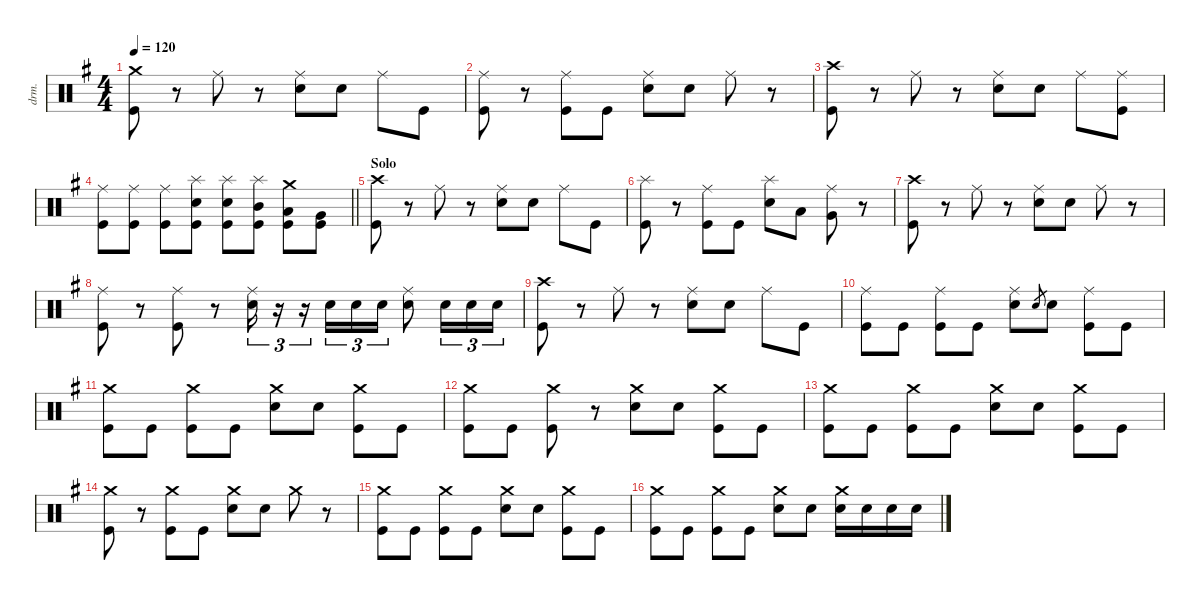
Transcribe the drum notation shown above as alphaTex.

\defaultSystemsLayout 4
\hideDynamics
\bracketExtendMode nobrackets
\track ("Drums (Bill Ward)" "drm.") {instrument percussion}
\staff {score}
\articulation defaults
\ts (4 4)
\tempo 120
\clef neutral
\ks g
("Crash medium (hit)"{acc forcenatural} "Kick (hit)"{acc forcenatural}).8{dy f} r.8 "Ride (middle)"{acc forcenatural}.8 r.8 ("Ride (middle)"{acc forcenatural} "Snare (hit) 2"{acc forcenatural}).8 "Snare (hit) 2"{acc forcenatural}.8 "Ride (middle)"{acc forcenatural}.8 "Kick (hit)"{acc forcenatural}.8 |
("Ride (middle)"{acc forcenatural} "Kick (hit)"{acc forcenatural}).8 r.8 ("Ride (middle)"{acc forcenatural} "Kick (hit)"{acc forcenatural}).8 "Kick (hit)"{acc forcenatural}.8 ("Ride (middle)"{acc forcenatural} "Snare (hit) 2"{acc forcenatural}).8 "Snare (hit) 2"{acc forcenatural}.8 "Ride (middle)"{acc forcenatural}.8 r.8 |
("Crash high (hit)"{acc forcenatural} "Kick (hit)"{acc forcenatural}).8 r.8 "Ride (middle)"{acc forcenatural}.8 r.8 ("Ride (middle)"{acc forcenatural} "Snare (hit) 2"{acc forcenatural}).8 "Snare (hit) 2"{acc forcenatural}.8 "Ride (middle)"{acc forcenatural}.8 ("Ride (middle)"{acc forcenatural} "Kick (hit)"{acc forcenatural}).8 |
\barLineRight lightlight
("Ride (middle)"{acc forcenatural} "Kick (hit)"{acc forcenatural}).8 ("Ride (middle)"{acc forcenatural} "Kick (hit)"{acc forcenatural}).8 ("Ride (middle)"{acc forcenatural} "Kick (hit)"{acc forcenatural}).8 ("Splash (hit)"{acc forcenatural} "Snare (hit) 2"{acc forcenatural} "Kick (hit)"{acc forcenatural}).8{dy ff} ("Splash (hit)"{acc forcenatural} "Snare (hit) 2"{acc forcenatural} "Kick (hit)"{acc forcenatural}).8 ("Splash (hit)"{acc forcenatural} "Mid Tom (hit)"{acc forcenatural} "Kick (hit)"{acc forcenatural}).8{dy fff} ("Crash medium (hit)"{acc forcenatural} "Low Tom (hit)"{acc forcenatural} "Kick (hit)"{acc forcenatural}).8 ("Very Low Tom (hit)"{acc forcenatural} "Kick (hit)"{acc forcenatural}).8{dy f} |
\section ("" "Solo")
("Crash high (hit)"{acc forcenatural} "Kick (hit)"{acc forcenatural}).8 r.8 "Ride (middle)"{acc forcenatural}.8 r.8 ("Ride (middle)"{acc forcenatural} "Snare (hit) 2"{acc forcenatural}).8 "Snare (hit) 2"{acc forcenatural}.8 "Ride (middle)"{acc forcenatural}.8 "Kick (hit)"{acc forcenatural}.8 |
("Splash (hit)"{acc forcenatural} "Kick (hit)"{acc forcenatural}).8 r.8 ("Ride (middle)"{acc forcenatural} "Kick (hit)"{acc forcenatural}).8 "Kick (hit)"{acc forcenatural}.8 ("Splash (hit)"{acc forcenatural} "Snare (hit) 2"{acc forcenatural}).8 "Low Tom (hit)"{acc forcenatural}.8 ("Ride (middle)"{acc forcenatural} "Very Low Tom (hit)"{acc forcenatural}).8 r.8 |
("Crash high (hit)"{acc forcenatural} "Kick (hit)"{acc forcenatural}).8 r.8 "Ride (middle)"{acc forcenatural}.8 r.8 ("Ride (middle)"{acc forcenatural} "Snare (hit) 2"{acc forcenatural}).8{dy fff} "Snare (hit) 2"{acc forcenatural}.8{dy f} "Ride (middle)"{acc forcenatural}.8 r.8 |
("Ride (middle)"{acc forcenatural} "Kick (hit)"{acc forcenatural}).8{dy fff} r.8 ("Ride (middle)"{acc forcenatural} "Kick (hit)"{acc forcenatural}).8{dy f} r.8 ("Ride (middle)"{acc forcenatural} "Snare (hit) 2"{acc forcenatural}).16{tu (3 2)} r.16{tu (3 2)} r.16{tu (3 2)} "Snare (hit) 2"{acc forcenatural}.16{tu (3 2) dy mf} "Snare (hit) 2"{acc forcenatural}.16{tu (3 2) dy f} "Snare (hit) 2"{acc forcenatural}.16{tu (3 2) dy mf} ("Ride (middle)"{acc forcenatural} "Snare (hit) 2"{acc forcenatural}).8{dy f} "Snare (hit) 2"{acc forcenatural}.16{tu (3 2) dy mf} "Snare (hit) 2"{acc forcenatural}.16{tu (3 2) dy mp} "Snare (hit) 2"{acc forcenatural}.16{tu (3 2) dy mf} |
("Crash high (hit)"{acc forcenatural} "Kick (hit)"{acc forcenatural}).8{dy ff} r.8 "Ride (middle)"{acc forcenatural}.8{dy f} r.8 ("Ride (middle)"{acc forcenatural} "Snare (hit) 2"{acc forcenatural}).8 "Snare (hit) 2"{acc forcenatural}.8 "Ride (middle)"{acc forcenatural}.8 "Kick (hit)"{acc forcenatural}.8 |
("Ride (middle)"{acc forcenatural} "Kick (hit)"{acc forcenatural}).8 "Kick (hit)"{acc forcenatural}.8 ("Ride (middle)"{acc forcenatural} "Kick (hit)"{acc forcenatural}).8 "Kick (hit)"{acc forcenatural}.8 ("Ride (middle)"{acc forcenatural} "Snare (hit) 2"{acc forcenatural}).8 "Electric Snare (hit)"{acc forcenatural}.8{gr dy mf} "Snare (hit) 2"{acc forcenatural}.8{dy f} ("Ride (middle)"{acc forcenatural} "Kick (hit)"{acc forcenatural}).8 "Kick (hit)"{acc forcenatural}.8 |
("Crash medium (hit)"{acc forcenatural} "Kick (hit)"{acc forcenatural}).8 "Kick (hit)"{acc forcenatural}.8 ("Crash medium (hit)"{acc forcenatural} "Kick (hit)"{acc forcenatural}).8{dy mp} "Kick (hit)"{acc forcenatural}.8{dy f} ("Crash medium (hit)"{acc forcenatural} "Snare (hit) 2"{acc forcenatural}).8{dy mp} "Snare (hit) 2"{acc forcenatural}.8{dy f} ("Crash medium (hit)"{acc forcenatural} "Kick (hit)"{acc forcenatural}).8{dy mp} "Kick (hit)"{acc forcenatural}.8{dy f} |
("Crash medium (hit)"{acc forcenatural} "Kick (hit)"{acc forcenatural}).8 "Kick (hit)"{acc forcenatural}.8 ("Crash medium (hit)"{acc forcenatural} "Kick (hit)"{acc forcenatural}).8{dy mp} r.8 ("Crash medium (hit)"{acc forcenatural} "Snare (hit) 2"{acc forcenatural}).8 "Snare (hit) 2"{acc forcenatural}.8{dy f} ("Crash medium (hit)"{acc forcenatural} "Kick (hit)"{acc forcenatural}).8{dy mp} "Kick (hit)"{acc forcenatural}.8{dy f} |
("Crash medium (hit)"{acc forcenatural} "Kick (hit)"{acc forcenatural}).8 "Kick (hit)"{acc forcenatural}.8 ("Crash medium (hit)"{acc forcenatural} "Kick (hit)"{acc forcenatural}).8{dy mp} "Kick (hit)"{acc forcenatural}.8{dy f} ("Crash medium (hit)"{acc forcenatural} "Snare (hit) 2"{acc forcenatural}).8{dy mp} "Snare (hit) 2"{acc forcenatural}.8{dy f} ("Crash medium (hit)"{acc forcenatural} "Kick (hit)"{acc forcenatural}).8{dy mp} "Kick (hit)"{acc forcenatural}.8{dy f} |
("Crash medium (hit)"{acc forcenatural} "Kick (hit)"{acc forcenatural}).8 r.8 ("Crash medium (hit)"{acc forcenatural} "Kick (hit)"{acc forcenatural}).8 "Kick (hit)"{acc forcenatural}.8 ("Crash medium (hit)"{acc forcenatural} "Snare (hit) 2"{acc forcenatural}).8 "Snare (hit) 2"{acc forcenatural}.8 "Crash medium (hit)"{acc forcenatural}.8 r.8 |
("Crash medium (hit)"{acc forcenatural} "Kick (hit)"{acc forcenatural}).8 "Kick (hit)"{acc forcenatural}.8 ("Crash medium (hit)"{acc forcenatural} "Kick (hit)"{acc forcenatural}).8{dy mp} "Kick (hit)"{acc forcenatural}.8{dy f} ("Crash medium (hit)"{acc forcenatural} "Snare (hit) 2"{acc forcenatural}).8{dy mp} "Snare (hit) 2"{acc forcenatural}.8{dy f} ("Crash medium (hit)"{acc forcenatural} "Kick (hit)"{acc forcenatural}).8{dy mp} "Kick (hit)"{acc forcenatural}.8{dy f} |
("Crash medium (hit)"{acc forcenatural} "Kick (hit)"{acc forcenatural}).8 "Kick (hit)"{acc forcenatural}.8 ("Crash medium (hit)"{acc forcenatural} "Kick (hit)"{acc forcenatural}).8 "Kick (hit)"{acc forcenatural}.8 ("Crash medium (hit)"{acc forcenatural} "Snare (hit) 2"{acc forcenatural}).8 "Snare (hit) 2"{acc forcenatural}.8 ("Crash medium (hit)"{acc forcenatural} "Snare (hit) 2"{acc forcenatural}).16 "Snare (hit) 2"{acc forcenatural}.16 "Snare (hit) 2"{acc forcenatural}.16 "Snare (hit) 2"{acc forcenatural}.16
